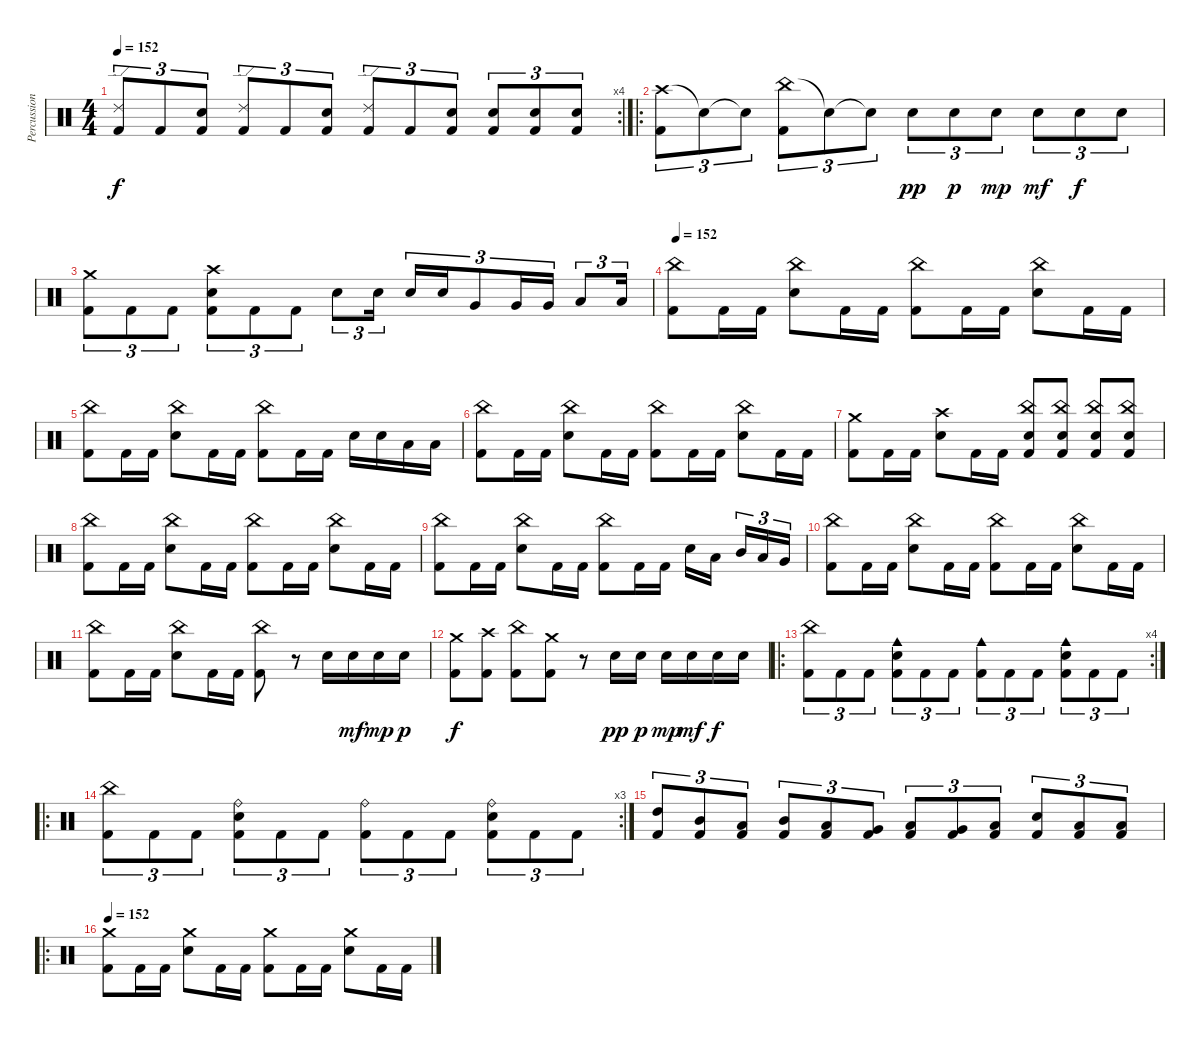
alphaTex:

\track ("Percussion" "Percussion") {instrument percussion}
\staff {score}
\articulation defaults
\rc 4
\ts (4 4)
\tempo 152
\clef neutral
\ks c
("Ride (edge) 2" "Kick (hit) 2").8{tu (3 2) dy f} "Kick (hit) 2".8{tu (3 2)} ("Snare (hit) 2" "Kick (hit) 2").8{tu (3 2)} ("Ride (edge) 2" "Kick (hit) 2").8{tu (3 2)} "Kick (hit) 2".8{tu (3 2)} ("Snare (hit) 2" "Kick (hit) 2").8{tu (3 2)} ("Ride (edge) 2" "Kick (hit) 2").8{tu (3 2)} "Kick (hit) 2".8{tu (3 2)} ("Snare (hit) 2" "Kick (hit) 2").8{tu (3 2)} ("Snare (hit) 2" "Kick (hit) 2").8{tu (3 2)} ("Snare (hit) 2" "Kick (hit) 2").8{tu (3 2)} ("Snare (hit) 2" "Kick (hit) 2").8{tu (3 2)} |
\ro
("Crash high (hit)" "Kick (hit) 2").8{tu (3 2)} "Snare (hit)"{t}.8{tu (3 2)} "Snare (hit)"{t}.8{tu (3 2)} ("China (hit)" "Kick (hit) 2").8{tu (3 2)} "Snare (hit)"{t}.8{tu (3 2)} "Snare (hit)"{t}.8{tu (3 2)} "Snare (hit) 2".8{tu (3 2) dy pp} "Snare (hit) 2".8{tu (3 2) dy p} "Snare (hit) 2".8{tu (3 2) dy mp} "Snare (hit) 2".8{tu (3 2) dy mf} "Snare (hit) 2".8{tu (3 2) dy f} "Snare (hit) 2".8{tu (3 2)} |
("Crash medium (hit)" "Kick (hit) 2").8{tu (3 2)} "Kick (hit) 2".8{tu (3 2)} "Kick (hit) 2".8{tu (3 2)} ("Crash high (hit)" "Snare (hit) 2" "Kick (hit) 2").8{tu (3 2)} "Kick (hit) 2".8{tu (3 2)} "Kick (hit) 2".8{tu (3 2)} "Snare (hit) 2".8{tu (3 2)} "Snare (hit) 2".16{tu (3 2)} "Snare (hit) 2".16{tu (3 2)} "Snare (hit) 2".16{tu (3 2)} "Very Low Tom (hit)".8{tu (3 2)} "Very Low Tom (hit)".16{tu (3 2)} "Very Low Tom (hit)".16{tu (3 2)} "Low Floor Tom (hit)".8{tu (3 2)} "Low Floor Tom (hit)".16{tu (3 2)} |
\tempo 152
("China (hit)" "Kick (hit) 2").8 "Kick (hit) 2".16 "Kick (hit) 2".16 ("China (hit)" "Snare (hit) 2").8 "Kick (hit) 2".16 "Kick (hit) 2".16 ("China (hit)" "Kick (hit) 2").8 "Kick (hit) 2".16 "Kick (hit) 2".16 ("China (hit)" "Snare (hit) 2").8 "Kick (hit) 2".16 "Kick (hit) 2".16 |
("China (hit)" "Kick (hit) 2").8 "Kick (hit) 2".16 "Kick (hit) 2".16 ("China (hit)" "Snare (hit) 2").8 "Kick (hit) 2".16 "Kick (hit) 2".16 ("China (hit)" "Kick (hit) 2").8 "Kick (hit) 2".16 "Kick (hit) 2".16 "Snare (hit) 2".16 "Snare (hit) 2".16 "Low Floor Tom (hit)".16 "Low Floor Tom (hit)".16 |
("China (hit)" "Kick (hit) 2").8 "Kick (hit) 2".16 "Kick (hit) 2".16 ("China (hit)" "Snare (hit) 2").8 "Kick (hit) 2".16 "Kick (hit) 2".16 ("China (hit)" "Kick (hit) 2").8 "Kick (hit) 2".16 "Kick (hit) 2".16 ("China (hit)" "Snare (hit) 2").8 "Kick (hit) 2".16 "Kick (hit) 2".16 |
("Crash medium (hit)" "Kick (hit) 2").8 "Kick (hit) 2".16 "Kick (hit) 2".16 ("Crash high (hit)" "Snare (hit) 2").8 "Kick (hit) 2".16 "Kick (hit) 2".16 ("China (hit)" "Electric Snare (hit)" "Kick (hit) 2").8 ("China (hit)" "Electric Snare (hit)" "Kick (hit) 2").8 ("China (hit)" "Electric Snare (hit)" "Kick (hit) 2").8 ("China (hit)" "Electric Snare (hit)" "Kick (hit) 2").8 |
("China (hit)" "Kick (hit) 2").8 "Kick (hit) 2".16 "Kick (hit) 2".16 ("China (hit)" "Snare (hit) 2").8 "Kick (hit) 2".16 "Kick (hit) 2".16 ("China (hit)" "Kick (hit) 2").8 "Kick (hit) 2".16 "Kick (hit) 2".16 ("China (hit)" "Snare (hit) 2").8 "Kick (hit) 2".16 "Kick (hit) 2".16 |
("China (hit)" "Kick (hit) 2").8 "Kick (hit) 2".16 "Kick (hit) 2".16 ("China (hit)" "Snare (hit) 2").8 "Kick (hit) 2".16 "Kick (hit) 2".16 ("China (hit)" "Kick (hit) 2").8 "Kick (hit) 2".16 "Kick (hit) 2".16 "Snare (hit) 2".16 "Low Tom (hit)".16 "Mid Tom (hit)".16{tu (3 2)} "Low Tom (hit)".16{tu (3 2)} "Very Low Tom (hit)".16{tu (3 2)} |
("China (hit)" "Kick (hit) 2").8 "Kick (hit) 2".16 "Kick (hit) 2".16 ("China (hit)" "Snare (hit) 2").8 "Kick (hit) 2".16 "Kick (hit) 2".16 ("China (hit)" "Kick (hit) 2").8 "Kick (hit) 2".16 "Kick (hit) 2".16 ("China (hit)" "Snare (hit) 2").8 "Kick (hit) 2".16 "Kick (hit) 2".16 |
("China (hit)" "Kick (hit) 2").8 "Kick (hit) 2".16 "Kick (hit) 2".16 ("China (hit)" "Snare (hit) 2").8 "Kick (hit) 2".16 "Kick (hit) 2".16 ("China (hit)" "Kick (hit) 2").8 r.8 "Electric Snare (hit)".16 "Electric Snare (hit)".16{dy mf} "Electric Snare (hit)".16{dy mp} "Electric Snare (hit)".16{dy p} |
("Crash medium (hit)" "Kick (hit) 2").8{dy f} ("Crash high (hit)" "Kick (hit) 2").8 ("China (hit)" "Kick (hit) 2").8 ("Crash medium (hit)" "Kick (hit) 2").8 r.8 "Electric Snare (hit)".16{dy pp} "Electric Snare (hit)".16{dy p} "Electric Snare (hit)".16{dy mp} "Electric Snare (hit)".16{dy mf} "Electric Snare (hit)".16{dy f} "Electric Snare (hit)".16 |
\ro
\rc 4
("China (hit)" "Kick (hit) 2").8{tu (3 2)} "Kick (hit) 2".8{tu (3 2)} "Kick (hit) 2".8{tu (3 2)} ("Cowbell medium (hit)" "Electric Snare (hit)" "Kick (hit) 2").8{tu (3 2)} "Kick (hit) 2".8{tu (3 2)} "Kick (hit) 2".8{tu (3 2)} ("Cowbell medium (hit)" "Kick (hit) 2").8{tu (3 2)} "Kick (hit) 2".8{tu (3 2)} "Kick (hit) 2".8{tu (3 2)} ("Cowbell medium (hit)" "Electric Snare (hit)" "Kick (hit) 2").8{tu (3 2)} "Kick (hit) 2".8{tu (3 2)} "Kick (hit) 2".8{tu (3 2)} |
\ro
\rc 3
("China (hit)" "Kick (hit) 2").8{tu (3 2)} "Kick (hit) 2".8{tu (3 2)} "Kick (hit) 2".8{tu (3 2)} ("Ride (bell)" "Electric Snare (hit)" "Kick (hit) 2").8{tu (3 2)} "Kick (hit) 2".8{tu (3 2)} "Kick (hit) 2".8{tu (3 2)} ("Ride (bell)" "Kick (hit) 2").8{tu (3 2)} "Kick (hit) 2".8{tu (3 2)} "Kick (hit) 2".8{tu (3 2)} ("Ride (bell)" "Electric Snare (hit)" "Kick (hit) 2").8{tu (3 2)} "Kick (hit) 2".8{tu (3 2)} "Kick (hit) 2".8{tu (3 2)} |
("High Tom (hit)" "Kick (hit) 2").8{tu (3 2)} ("Mid Tom (hit)" "Kick (hit) 2").8{tu (3 2)} ("Low Tom (hit)" "Kick (hit) 2").8{tu (3 2)} ("Mid Tom (hit)" "Kick (hit) 2").8{tu (3 2)} ("Low Tom (hit)" "Kick (hit) 2").8{tu (3 2)} ("Very Low Tom (hit)" "Kick (hit) 2").8{tu (3 2)} ("Low Tom (hit)" "Kick (hit) 2").8{tu (3 2)} ("Very Low Tom (hit)" "Kick (hit) 2").8{tu (3 2)} ("Low Floor Tom (hit)" "Kick (hit) 2").8{tu (3 2)} ("Electric Snare (hit)" "Kick (hit) 2").8{tu (3 2)} ("Low Floor Tom (hit)" "Kick (hit) 2").8{tu (3 2)} ("Low Floor Tom (hit)" "Kick (hit) 2").8{tu (3 2)} |
\ro
\tempo 152
("Crash medium (hit)" "Kick (hit) 2").8 "Kick (hit) 2".16 "Kick (hit) 2".16 ("Crash medium (hit)" "Electric Snare (hit)").8 "Kick (hit) 2".16 "Kick (hit) 2".16 ("Crash medium (hit)" "Kick (hit) 2").8 "Kick (hit) 2".16 "Kick (hit) 2".16 ("Crash medium (hit)" "Electric Snare (hit)").8 "Kick (hit) 2".16 "Kick (hit) 2".16
